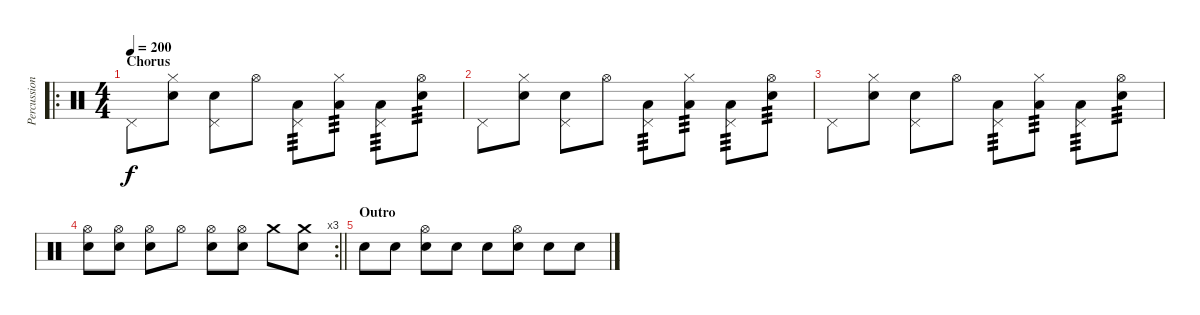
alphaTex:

\track ("Percussion" "Percussion") {instrument percussion}
\staff {score}
\articulation defaults
\ro
\ts (4 4)
\section ("" "Chorus")
\tempo 200
\clef neutral
\ks c "Pedal Hi-Hat (hit)".8{dy f}
("Hi-Hat (closed)" "Electric Snare (hit)").8 ("Pedal Hi-Hat (hit)" "Electric Snare (hit)").8 "Hi-Hat (open)".8 ("Pedal Hi-Hat (hit)" "Low Floor Tom (hit)").8{tp 3} ("Hi-Hat (closed)" "Low Floor Tom (hit)").8{tp 3} ("Pedal Hi-Hat (hit)" "Low Tom (hit)").8{tp 3} ("Hi-Hat (open)" "Electric Snare (hit)").8{tp 3} |
"Pedal Hi-Hat (hit)".8 ("Hi-Hat (closed)" "Electric Snare (hit)").8 ("Pedal Hi-Hat (hit)" "Electric Snare (hit)").8 "Hi-Hat (open)".8 ("Pedal Hi-Hat (hit)" "Low Floor Tom (hit)").8{tp 3} ("Hi-Hat (closed)" "Low Floor Tom (hit)").8{tp 3} ("Pedal Hi-Hat (hit)" "Low Tom (hit)").8{tp 3} ("Hi-Hat (open)" "Electric Snare (hit)").8{tp 3} |
"Pedal Hi-Hat (hit)".8 ("Hi-Hat (closed)" "Electric Snare (hit)").8 ("Pedal Hi-Hat (hit)" "Electric Snare (hit)").8 "Hi-Hat (open)".8 ("Pedal Hi-Hat (hit)" "Low Floor Tom (hit)").8{tp 3} ("Hi-Hat (closed)" "Low Floor Tom (hit)").8{tp 3} ("Pedal Hi-Hat (hit)" "Low Tom (hit)").8{tp 3} ("Hi-Hat (open)" "Electric Snare (hit)").8{tp 3} |
\rc 3
\barLineRight lightlight
("Hi-Hat (open)" "Electric Snare (hit)").8 ("Hi-Hat (open)" "Electric Snare (hit)").8 ("Hi-Hat (open)" "Electric Snare (hit)").8 "Hi-Hat (open)".8 ("Hi-Hat (open)" "Electric Snare (hit)").8 ("Hi-Hat (open)" "Electric Snare (hit)").8 "Crash medium (hit)".8 ("Crash medium (hit)" "Electric Snare (hit)").8 |
\section ("" "Outro")
"Electric Snare (hit)".8 "Electric Snare (hit)".8 ("Electric Snare (hit)" "Hi-Hat (open)").8 "Electric Snare (hit)".8 "Electric Snare (hit)".8 ("Electric Snare (hit)" "Hi-Hat (open)").8 "Electric Snare (hit)".8 "Electric Snare (hit)".8
